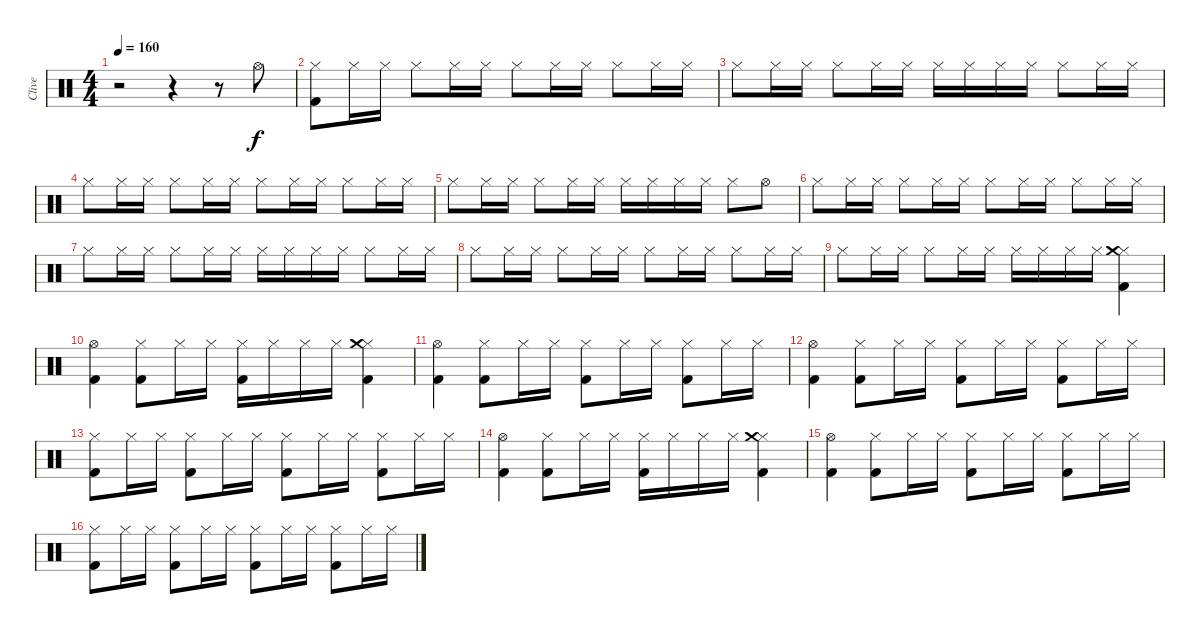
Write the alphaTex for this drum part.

\track ("Clive" "Clive") {instrument percussion}
\staff {score}
\articulation defaults
\ts (4 4)
\tempo 160
\clef neutral
\ks c
r.2{dy f} r.4 r.8 "Hi-Hat (open)".8 |
("Hi-Hat (closed)" "Kick (hit) 2").8 "Hi-Hat (closed)".16 "Hi-Hat (closed)".16 "Hi-Hat (closed)".8 "Hi-Hat (closed)".16 "Hi-Hat (closed)".16 "Hi-Hat (closed)".8 "Hi-Hat (closed)".16 "Hi-Hat (closed)".16 "Hi-Hat (closed)".8 "Hi-Hat (closed)".16 "Hi-Hat (closed)".16 |
"Hi-Hat (closed)".8 "Hi-Hat (closed)".16 "Hi-Hat (closed)".16 "Hi-Hat (closed)".8 "Hi-Hat (closed)".16 "Hi-Hat (closed)".16 "Hi-Hat (closed)".16 "Hi-Hat (closed)".16 "Hi-Hat (closed)".16 "Hi-Hat (closed)".16 "Hi-Hat (closed)".8 "Hi-Hat (closed)".16 "Hi-Hat (closed)".16 |
"Hi-Hat (closed)".8 "Hi-Hat (closed)".16 "Hi-Hat (closed)".16 "Hi-Hat (closed)".8 "Hi-Hat (closed)".16 "Hi-Hat (closed)".16 "Hi-Hat (closed)".8 "Hi-Hat (closed)".16 "Hi-Hat (closed)".16 "Hi-Hat (closed)".8 "Hi-Hat (closed)".16 "Hi-Hat (closed)".16 |
"Hi-Hat (closed)".8 "Hi-Hat (closed)".16 "Hi-Hat (closed)".16 "Hi-Hat (closed)".8 "Hi-Hat (closed)".16 "Hi-Hat (closed)".16 "Hi-Hat (closed)".16 "Hi-Hat (closed)".16 "Hi-Hat (closed)".16 "Hi-Hat (closed)".16 "Hi-Hat (closed)".8 "Hi-Hat (open)".8 |
"Hi-Hat (closed)".8 "Hi-Hat (closed)".16 "Hi-Hat (closed)".16 "Hi-Hat (closed)".8 "Hi-Hat (closed)".16 "Hi-Hat (closed)".16 "Hi-Hat (closed)".8 "Hi-Hat (closed)".16 "Hi-Hat (closed)".16 "Hi-Hat (closed)".8 "Hi-Hat (closed)".16 "Hi-Hat (closed)".16 |
"Hi-Hat (closed)".8 "Hi-Hat (closed)".16 "Hi-Hat (closed)".16 "Hi-Hat (closed)".8 "Hi-Hat (closed)".16 "Hi-Hat (closed)".16 "Hi-Hat (closed)".16 "Hi-Hat (closed)".16 "Hi-Hat (closed)".16 "Hi-Hat (closed)".16 "Hi-Hat (closed)".8 "Hi-Hat (closed)".16 "Hi-Hat (closed)".16 |
"Hi-Hat (closed)".8 "Hi-Hat (closed)".16 "Hi-Hat (closed)".16 "Hi-Hat (closed)".8 "Hi-Hat (closed)".16 "Hi-Hat (closed)".16 "Hi-Hat (closed)".8 "Hi-Hat (closed)".16 "Hi-Hat (closed)".16 "Hi-Hat (closed)".8 "Hi-Hat (closed)".16 "Hi-Hat (closed)".16 |
"Hi-Hat (closed)".8 "Hi-Hat (closed)".16 "Hi-Hat (closed)".16 "Hi-Hat (closed)".8 "Hi-Hat (closed)".16 "Hi-Hat (closed)".16 "Hi-Hat (closed)".16 "Hi-Hat (closed)".16 "Hi-Hat (closed)".16 "Hi-Hat (closed)".16 ("Hi-Hat (closed)" "Crash medium (hit)" "Kick (hit) 2").4 |
("Hi-Hat (open)" "Kick (hit) 2").4 ("Hi-Hat (closed)" "Kick (hit) 2").8 "Hi-Hat (closed)".16 "Hi-Hat (closed)".16 ("Hi-Hat (closed)" "Kick (hit) 2").16 "Hi-Hat (closed)".16 "Hi-Hat (closed)".16 "Hi-Hat (closed)".16 ("Hi-Hat (closed)" "Crash medium (hit)" "Kick (hit) 2").4 |
("Hi-Hat (open)" "Kick (hit) 2").4 ("Hi-Hat (closed)" "Kick (hit) 2").8 "Hi-Hat (closed)".16 "Hi-Hat (closed)".16 ("Hi-Hat (closed)" "Kick (hit) 2").8 "Hi-Hat (closed)".16 "Hi-Hat (closed)".16 ("Hi-Hat (closed)" "Kick (hit) 2").8 "Hi-Hat (closed)".16 "Hi-Hat (closed)".16 |
("Hi-Hat (open)" "Kick (hit) 2").4 ("Hi-Hat (closed)" "Kick (hit) 2").8 "Hi-Hat (closed)".16 "Hi-Hat (closed)".16 ("Hi-Hat (closed)" "Kick (hit) 2").8 "Hi-Hat (closed)".16 "Hi-Hat (closed)".16 ("Hi-Hat (closed)" "Kick (hit) 2").8 "Hi-Hat (closed)".16 "Hi-Hat (closed)".16 |
("Hi-Hat (closed)" "Kick (hit) 2").8 "Hi-Hat (closed)".16 "Hi-Hat (closed)".16 ("Hi-Hat (closed)" "Kick (hit) 2").8 "Hi-Hat (closed)".16 "Hi-Hat (closed)".16 ("Hi-Hat (closed)" "Kick (hit) 2").8 "Hi-Hat (closed)".16 "Hi-Hat (closed)".16 ("Hi-Hat (closed)" "Kick (hit) 2").8 "Hi-Hat (closed)".16 "Hi-Hat (closed)".16 |
("Hi-Hat (open)" "Kick (hit) 2").4 ("Hi-Hat (closed)" "Kick (hit) 2").8 "Hi-Hat (closed)".16 "Hi-Hat (closed)".16 ("Hi-Hat (closed)" "Kick (hit) 2").16 "Hi-Hat (closed)".16 "Hi-Hat (closed)".16 "Hi-Hat (closed)".16 ("Hi-Hat (closed)" "Crash medium (hit)" "Kick (hit) 2").4 |
("Hi-Hat (open)" "Kick (hit) 2").4 ("Hi-Hat (closed)" "Kick (hit) 2").8 "Hi-Hat (closed)".16 "Hi-Hat (closed)".16 ("Hi-Hat (closed)" "Kick (hit) 2").8 "Hi-Hat (closed)".16 "Hi-Hat (closed)".16 ("Hi-Hat (closed)" "Kick (hit) 2").8 "Hi-Hat (closed)".16 "Hi-Hat (closed)".16 |
("Hi-Hat (closed)" "Kick (hit) 2").8 "Hi-Hat (closed)".16 "Hi-Hat (closed)".16 ("Hi-Hat (closed)" "Kick (hit) 2").8 "Hi-Hat (closed)".16 "Hi-Hat (closed)".16 ("Hi-Hat (closed)" "Kick (hit) 2").8 "Hi-Hat (closed)".16 "Hi-Hat (closed)".16 ("Hi-Hat (closed)" "Kick (hit) 2").8 "Hi-Hat (closed)".16 "Hi-Hat (closed)".16
